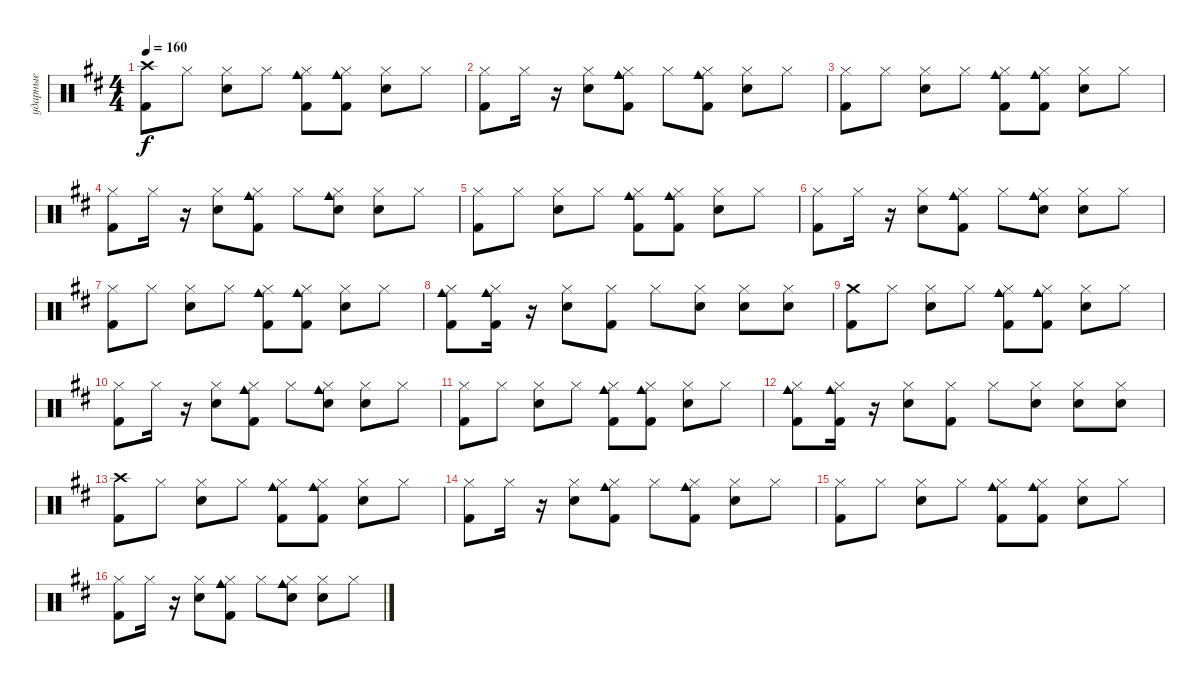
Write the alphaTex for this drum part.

\track ("ударные" "ударные") {instrument percussion}
\staff {score}
\articulation defaults
\ts (4 4)
\tempo 160
\clef neutral
\ks bminor
("Crash high (hit)" "Kick (hit) 2").8{dy f} "Hi-Hat (closed)".8 ("Hi-Hat (closed)" "Snare (hit) 2").8 "Hi-Hat (closed)".8 ("Hi-Hat (closed)" "Cowbell medium (hit)" "Kick (hit) 2").8 ("Hi-Hat (closed)" "Cowbell medium (hit)" "Kick (hit) 2").8 ("Hi-Hat (closed)" "Snare (hit) 2").8 "Hi-Hat (closed)".8 |
("Hi-Hat (closed)" "Kick (hit) 2").8 "Hi-Hat (closed)".16 r.16 ("Hi-Hat (closed)" "Snare (hit) 2").8 ("Hi-Hat (closed)" "Kick (hit) 2" "Cowbell medium (hit)").8 "Hi-Hat (closed)".8 ("Hi-Hat (closed)" "Kick (hit) 2" "Cowbell medium (hit)").8 ("Hi-Hat (closed)" "Snare (hit) 2").8 "Hi-Hat (closed)".8 |
("Hi-Hat (closed)" "Kick (hit) 2").8 "Hi-Hat (closed)".8 ("Hi-Hat (closed)" "Snare (hit) 2").8 "Hi-Hat (closed)".8 ("Hi-Hat (closed)" "Cowbell medium (hit)" "Kick (hit) 2").8 ("Hi-Hat (closed)" "Cowbell medium (hit)" "Kick (hit) 2").8 ("Hi-Hat (closed)" "Snare (hit) 2").8 "Hi-Hat (closed)".8 |
("Hi-Hat (closed)" "Kick (hit) 2").8 "Hi-Hat (closed)".16 r.16 ("Hi-Hat (closed)" "Snare (hit) 2").8 ("Hi-Hat (closed)" "Kick (hit) 2" "Cowbell medium (hit)").8 "Hi-Hat (closed)".8 ("Hi-Hat (closed)" "Hand Clap (hit)" "Cowbell medium (hit)").8 ("Hi-Hat (closed)" "Snare (hit) 2").8 "Hi-Hat (closed)".8 |
("Hi-Hat (closed)" "Kick (hit) 2").8 "Hi-Hat (closed)".8 ("Hi-Hat (closed)" "Snare (hit) 2").8 "Hi-Hat (closed)".8 ("Hi-Hat (closed)" "Cowbell medium (hit)" "Kick (hit) 2").8 ("Hi-Hat (closed)" "Cowbell medium (hit)" "Kick (hit) 2").8 ("Hi-Hat (closed)" "Snare (hit) 2").8 "Hi-Hat (closed)".8 |
("Hi-Hat (closed)" "Kick (hit) 2").8 "Hi-Hat (closed)".16 r.16 ("Hi-Hat (closed)" "Snare (hit) 2").8 ("Hi-Hat (closed)" "Kick (hit) 2" "Cowbell medium (hit)").8 "Hi-Hat (closed)".8 ("Hi-Hat (closed)" "Hand Clap (hit)" "Cowbell medium (hit)").8 ("Hi-Hat (closed)" "Snare (hit) 2").8 "Hi-Hat (closed)".8 |
("Hi-Hat (closed)" "Kick (hit) 2").8 "Hi-Hat (closed)".8 ("Hi-Hat (closed)" "Snare (hit) 2").8 "Hi-Hat (closed)".8 ("Hi-Hat (closed)" "Cowbell medium (hit)" "Kick (hit) 2").8 ("Hi-Hat (closed)" "Cowbell medium (hit)" "Kick (hit) 2").8 ("Hi-Hat (closed)" "Snare (hit) 2").8 "Hi-Hat (closed)".8 |
("Cowbell medium (hit)" "Hi-Hat (closed)" "Kick (hit) 2").8 ("Cowbell medium (hit)" "Kick (hit) 2" "Hi-Hat (closed)").16 r.16 ("Hi-Hat (closed)" "Snare (hit) 2").8 ("Hi-Hat (closed)" "Kick (hit) 2").8 "Hi-Hat (closed)".8 ("Hi-Hat (closed)" "Snare (hit) 2").8 ("Hi-Hat (closed)" "Snare (hit) 2").8 ("Snare (hit) 2" "Hi-Hat (closed)").8 |
("Crash medium (hit)" "Kick (hit) 2").8 "Hi-Hat (closed)".8 ("Hi-Hat (closed)" "Snare (hit) 2").8 "Hi-Hat (closed)".8 ("Hi-Hat (closed)" "Cowbell medium (hit)" "Kick (hit) 2").8 ("Hi-Hat (closed)" "Cowbell medium (hit)" "Kick (hit) 2").8 ("Hi-Hat (closed)" "Snare (hit) 2").8 "Hi-Hat (closed)".8 |
("Hi-Hat (closed)" "Kick (hit) 2").8 "Hi-Hat (closed)".16 r.16 ("Hi-Hat (closed)" "Snare (hit) 2").8 ("Hi-Hat (closed)" "Kick (hit) 2" "Cowbell medium (hit)").8 "Hi-Hat (closed)".8 ("Hi-Hat (closed)" "Hand Clap (hit)" "Cowbell medium (hit)").8 ("Hi-Hat (closed)" "Snare (hit) 2").8 "Hi-Hat (closed)".8 |
("Hi-Hat (closed)" "Kick (hit) 2").8 "Hi-Hat (closed)".8 ("Hi-Hat (closed)" "Snare (hit) 2").8 "Hi-Hat (closed)".8 ("Hi-Hat (closed)" "Cowbell medium (hit)" "Kick (hit) 2").8 ("Hi-Hat (closed)" "Cowbell medium (hit)" "Kick (hit) 2").8 ("Hi-Hat (closed)" "Snare (hit) 2").8 "Hi-Hat (closed)".8 |
("Cowbell medium (hit)" "Hi-Hat (closed)" "Kick (hit) 2").8 ("Cowbell medium (hit)" "Kick (hit) 2" "Hi-Hat (closed)").16 r.16 ("Hi-Hat (closed)" "Snare (hit) 2").8 ("Hi-Hat (closed)" "Kick (hit) 2").8 "Hi-Hat (closed)".8 ("Hi-Hat (closed)" "Snare (hit) 2").8 ("Hi-Hat (closed)" "Snare (hit) 2").8 ("Snare (hit) 2" "Hi-Hat (closed)").8 |
("Crash high (hit)" "Kick (hit) 2").8 "Hi-Hat (closed)".8 ("Hi-Hat (closed)" "Snare (hit) 2").8 "Hi-Hat (closed)".8 ("Hi-Hat (closed)" "Cowbell medium (hit)" "Kick (hit) 2").8 ("Hi-Hat (closed)" "Cowbell medium (hit)" "Kick (hit) 2").8 ("Hi-Hat (closed)" "Snare (hit) 2").8 "Hi-Hat (closed)".8 |
("Hi-Hat (closed)" "Kick (hit) 2").8 "Hi-Hat (closed)".16 r.16 ("Hi-Hat (closed)" "Snare (hit) 2").8 ("Hi-Hat (closed)" "Kick (hit) 2" "Cowbell medium (hit)").8 "Hi-Hat (closed)".8 ("Hi-Hat (closed)" "Kick (hit) 2" "Cowbell medium (hit)").8 ("Hi-Hat (closed)" "Snare (hit) 2").8 "Hi-Hat (closed)".8 |
("Hi-Hat (closed)" "Kick (hit) 2").8 "Hi-Hat (closed)".8 ("Hi-Hat (closed)" "Snare (hit) 2").8 "Hi-Hat (closed)".8 ("Hi-Hat (closed)" "Cowbell medium (hit)" "Kick (hit) 2").8 ("Hi-Hat (closed)" "Cowbell medium (hit)" "Kick (hit) 2").8 ("Hi-Hat (closed)" "Snare (hit) 2").8 "Hi-Hat (closed)".8 |
("Hi-Hat (closed)" "Kick (hit) 2").8 "Hi-Hat (closed)".16 r.16 ("Hi-Hat (closed)" "Snare (hit) 2").8 ("Hi-Hat (closed)" "Kick (hit) 2" "Cowbell medium (hit)").8 "Hi-Hat (closed)".8 ("Hi-Hat (closed)" "Hand Clap (hit)" "Cowbell medium (hit)").8 ("Hi-Hat (closed)" "Snare (hit) 2").8 "Hi-Hat (closed)".8
